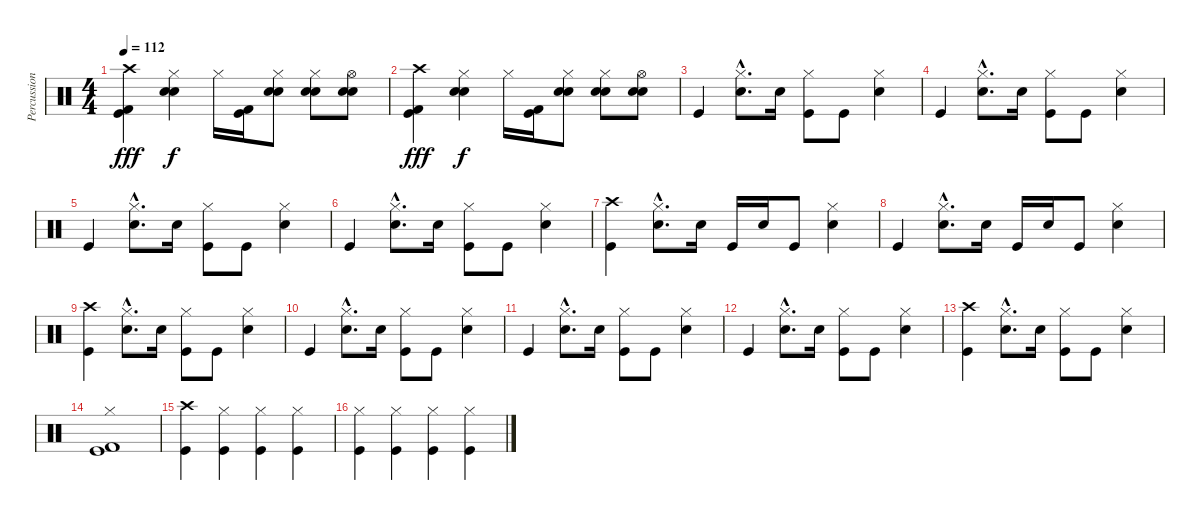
\track ("Percussions" "Percussion") {instrument percussion}
\staff {score}
\articulation defaults
\ts (4 4)
\tempo 112
\clef neutral
\ks c
("Crash high (hit)" "Kick (hit)" "Kick (hit) 2").4{dy fff} ("Hi-Hat (closed)" "Snare (hit) 2" "Electric Snare (hit)").4{dy f} "Hi-Hat (closed)".16 ("Kick (hit)" "Kick (hit) 2").16 ("Hi-Hat (closed)" "Snare (hit) 2" "Electric Snare (hit)").8 ("Hi-Hat (closed)" "Snare (hit) 2" "Electric Snare (hit)").8 ("Hi-Hat (open)" "Snare (hit) 2" "Electric Snare (hit)").8 |
("Crash high (hit)" "Kick (hit)" "Kick (hit) 2").4{dy fff} ("Hi-Hat (closed)" "Snare (hit) 2" "Electric Snare (hit)").4{dy f} "Hi-Hat (closed)".16 ("Kick (hit)" "Kick (hit) 2").16 ("Hi-Hat (closed)" "Snare (hit) 2" "Electric Snare (hit)").8 ("Hi-Hat (closed)" "Snare (hit) 2" "Electric Snare (hit)").8 ("Hi-Hat (open)" "Snare (hit) 2" "Electric Snare (hit)").8 |
"Kick (hit)".4 ("Hi-Hat (closed)"{hac} "Snare (hit) 2"{hac}).8{d} "Snare (hit) 2".16 ("Hi-Hat (closed)" "Kick (hit)").8 "Kick (hit)".8 ("Hi-Hat (closed)" "Snare (hit) 2").4 |
"Kick (hit)".4 ("Hi-Hat (closed)"{hac} "Snare (hit) 2"{hac}).8{d} "Snare (hit) 2".16 ("Hi-Hat (closed)" "Kick (hit)").8 "Kick (hit)".8 ("Hi-Hat (closed)" "Snare (hit) 2").4 |
"Kick (hit)".4 ("Hi-Hat (closed)"{hac} "Snare (hit) 2"{hac}).8{d} "Snare (hit) 2".16 ("Hi-Hat (closed)" "Kick (hit)").8 "Kick (hit)".8 ("Hi-Hat (closed)" "Snare (hit) 2").4 |
"Kick (hit)".4 ("Hi-Hat (closed)"{hac} "Snare (hit) 2"{hac}).8{d} "Snare (hit) 2".16 ("Hi-Hat (closed)" "Kick (hit)").8 "Kick (hit)".8 ("Hi-Hat (closed)" "Snare (hit) 2").4 |
("Crash high (hit)" "Kick (hit)").4 ("Hi-Hat (closed)"{hac} "Snare (hit) 2"{hac}).8{d} "Snare (hit) 2".16 "Kick (hit)".16 "Snare (hit) 2".16 "Kick (hit)".8 ("Hi-Hat (closed)" "Snare (hit) 2").4 |
"Kick (hit)".4 ("Hi-Hat (closed)"{hac} "Snare (hit) 2"{hac}).8{d} "Snare (hit) 2".16 "Kick (hit)".16 "Snare (hit) 2".16 "Kick (hit)".8 ("Hi-Hat (closed)" "Snare (hit) 2").4 |
("Crash high (hit)" "Kick (hit)").4 ("Hi-Hat (closed)"{hac} "Snare (hit) 2"{hac}).8{d} "Snare (hit) 2".16 ("Hi-Hat (closed)" "Kick (hit)").8 "Kick (hit)".8 ("Hi-Hat (closed)" "Snare (hit) 2").4 |
"Kick (hit)".4 ("Hi-Hat (closed)"{hac} "Snare (hit) 2"{hac}).8{d} "Snare (hit) 2".16 ("Hi-Hat (closed)" "Kick (hit)").8 "Kick (hit)".8 ("Hi-Hat (closed)" "Snare (hit) 2").4 |
"Kick (hit)".4 ("Hi-Hat (closed)"{hac} "Snare (hit) 2"{hac}).8{d} "Snare (hit) 2".16 ("Hi-Hat (closed)" "Kick (hit)").8 "Kick (hit)".8 ("Hi-Hat (closed)" "Snare (hit) 2").4 |
"Kick (hit)".4 ("Hi-Hat (closed)"{hac} "Snare (hit) 2"{hac}).8{d} "Snare (hit) 2".16 ("Hi-Hat (closed)" "Kick (hit)").8 "Kick (hit)".8 ("Hi-Hat (closed)" "Snare (hit) 2").4 |
("Crash high (hit)" "Kick (hit)").4 ("Hi-Hat (closed)"{hac} "Snare (hit) 2"{hac}).8{d} "Snare (hit) 2".16 ("Hi-Hat (closed)" "Kick (hit)").8 "Kick (hit)".8 ("Hi-Hat (closed)" "Snare (hit) 2").4 |
("Hi-Hat (closed)" "Kick (hit)" "Kick (hit) 2").1 |
("Crash high (hit)" "Kick (hit)").4 ("Hi-Hat (closed)" "Kick (hit)").4 ("Hi-Hat (closed)" "Kick (hit)").4 ("Hi-Hat (closed)" "Kick (hit)").4 |
("Hi-Hat (closed)" "Kick (hit)").4 ("Hi-Hat (closed)" "Kick (hit)").4 ("Hi-Hat (closed)" "Kick (hit)").4 ("Hi-Hat (closed)" "Kick (hit)").4
